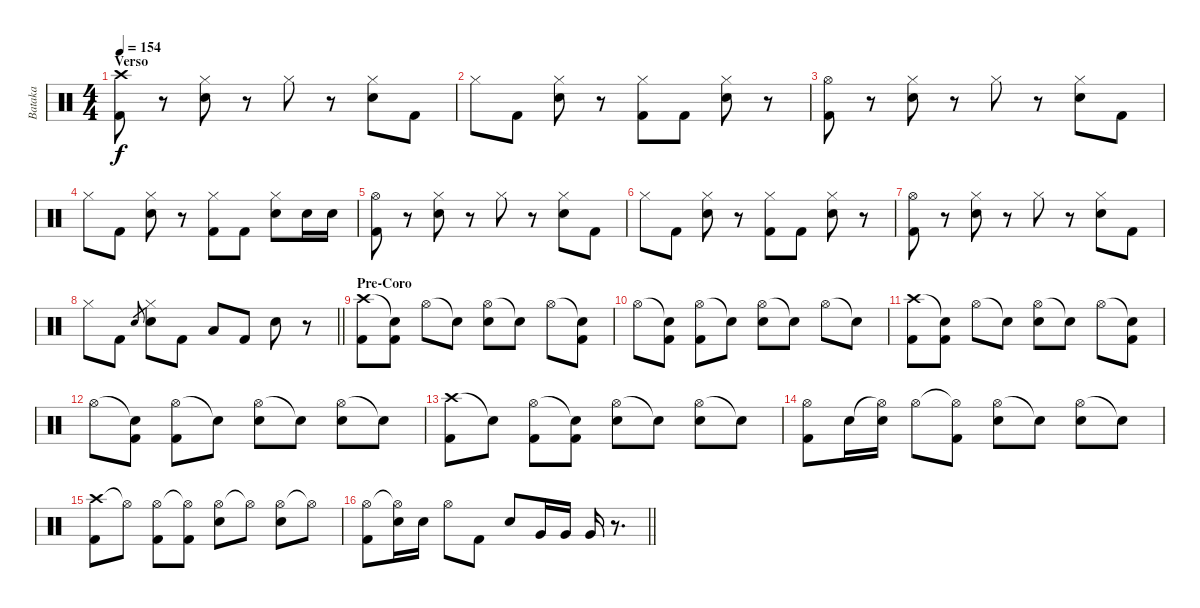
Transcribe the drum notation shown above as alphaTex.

\track ("Bataka" "Bataka") {instrument percussion}
\staff {score}
\articulation defaults
\ts (4 4)
\section ("" "Verso")
\tempo 154
\clef neutral
\ks c
("Crash high (hit)" "Kick (hit) 2").8{dy f} r.8 ("Hi-Hat (closed)" "Electric Snare (hit)").8 r.8 "Hi-Hat (closed)".8 r.8 ("Hi-Hat (closed)" "Electric Snare (hit)").8 "Kick (hit) 2".8 |
"Hi-Hat (closed)".8 "Kick (hit) 2".8 ("Hi-Hat (closed)" "Electric Snare (hit)").8 r.8 ("Hi-Hat (closed)" "Kick (hit) 2").8 "Kick (hit) 2".8 ("Hi-Hat (closed)" "Electric Snare (hit)").8 r.8 |
("Hi-Hat (open)" "Kick (hit) 2").8 r.8 ("Hi-Hat (closed)" "Electric Snare (hit)").8 r.8 "Hi-Hat (closed)".8 r.8 ("Hi-Hat (closed)" "Electric Snare (hit)").8 "Kick (hit) 2".8 |
"Hi-Hat (closed)".8 "Kick (hit) 2".8 ("Hi-Hat (closed)" "Electric Snare (hit)").8 r.8 ("Hi-Hat (closed)" "Kick (hit) 2").8 "Kick (hit) 2".8 ("Hi-Hat (closed)" "Electric Snare (hit)").8 "Electric Snare (hit)".16 "Electric Snare (hit)".16 |
("Hi-Hat (open)" "Kick (hit) 2").8 r.8 ("Hi-Hat (closed)" "Electric Snare (hit)").8 r.8 "Hi-Hat (closed)".8 r.8 ("Hi-Hat (closed)" "Electric Snare (hit)").8 "Kick (hit) 2".8 |
"Hi-Hat (closed)".8 "Kick (hit) 2".8 ("Hi-Hat (closed)" "Electric Snare (hit)").8 r.8 ("Hi-Hat (closed)" "Kick (hit) 2").8 "Kick (hit) 2".8 ("Hi-Hat (closed)" "Electric Snare (hit)").8 r.8 |
("Hi-Hat (open)" "Kick (hit) 2").8 r.8 ("Hi-Hat (closed)" "Electric Snare (hit)").8 r.8 "Hi-Hat (closed)".8 r.8 ("Hi-Hat (closed)" "Electric Snare (hit)").8 "Kick (hit) 2".8 |
\barLineRight lightlight "Hi-Hat (closed)".8 "Kick (hit) 2".8 "Electric Snare (hit)".8{gr}
("Hi-Hat (closed)" "Electric Snare (hit)").8 "Kick (hit) 2".8 "Low Floor Tom (hit)".8 "Kick (hit) 2".8 "Electric Snare (hit)".8 r.8 |
\section ("" "Pre-Coro")
("Crash high (hit)" "Kick (hit) 2").8 ("Snare (hit)"{t} "Kick (hit) 2").8 "Hi-Hat (open)".8 "Snare (hit)"{t}.8 ("Hi-Hat (open)" "Electric Snare (hit)").8 "Snare (hit)"{t}.8 "Hi-Hat (open)".8 ("Snare (hit)"{t} "Kick (hit) 2").8 |
"Hi-Hat (open)".8 ("Snare (hit)"{t} "Kick (hit) 2").8 ("Hi-Hat (open)" "Kick (hit) 2").8 "Snare (hit)"{t}.8 ("Hi-Hat (open)" "Electric Snare (hit)").8 "Snare (hit)"{t}.8 "Hi-Hat (open)".8 "Snare (hit)"{t}.8 |
("Crash high (hit)" "Kick (hit) 2").8 ("Snare (hit)"{t} "Kick (hit) 2").8 "Hi-Hat (open)".8 "Snare (hit)"{t}.8 ("Hi-Hat (open)" "Electric Snare (hit)").8 "Snare (hit)"{t}.8 "Hi-Hat (open)".8 ("Snare (hit)"{t} "Kick (hit) 2").8 |
"Hi-Hat (open)".8 ("Snare (hit)"{t} "Kick (hit) 2").8 ("Hi-Hat (open)" "Kick (hit) 2").8 "Snare (hit)"{t}.8 ("Hi-Hat (open)" "Electric Snare (hit)").8 "Snare (hit)"{t}.8 ("Hi-Hat (open)" "Electric Snare (hit)").8 "Snare (hit)"{t}.8 |
("Crash high (hit)" "Kick (hit) 2").8 "Snare (hit)"{t}.8 ("Hi-Hat (open)" "Kick (hit) 2").8 ("Snare (hit)"{t} "Kick (hit) 2").8 ("Hi-Hat (open)" "Electric Snare (hit)").8 "Snare (hit)"{t}.8 ("Hi-Hat (open)" "Electric Snare (hit)").8 "Snare (hit)"{t}.8 |
("Hi-Hat (open)" "Kick (hit) 2").8 "Electric Snare (hit)".16 ("Hi-Hat (open)"{t} "Electric Snare (hit)").16 "Hi-Hat (open)".8 ("Hi-Hat (open)"{t} "Kick (hit) 2").8 ("Hi-Hat (open)" "Electric Snare (hit)").8 "Snare (hit)"{t}.8 ("Hi-Hat (open)" "Electric Snare (hit)").8 "Snare (hit)"{t}.8 |
("Crash high (hit)" "Kick (hit) 2").8 "Hi-Hat (open)"{t}.8 ("Hi-Hat (open)" "Kick (hit) 2").8 ("Hi-Hat (open)"{t} "Kick (hit) 2").8 ("Hi-Hat (open)" "Electric Snare (hit)").8 "Hi-Hat (open)"{t}.8 ("Hi-Hat (open)" "Electric Snare (hit)").8 "Hi-Hat (open)"{t}.8 |
\barLineRight lightlight
("Hi-Hat (open)" "Kick (hit) 2").8 ("Hi-Hat (open)"{t} "Electric Snare (hit)").16 "Electric Snare (hit)".16 "Hi-Hat (open)".8 "Kick (hit) 2".8 "Electric Snare (hit)".8 "Very Low Tom (hit)".16 "Very Low Tom (hit)".16 "Very Low Tom (hit)".16 r.8{d}
